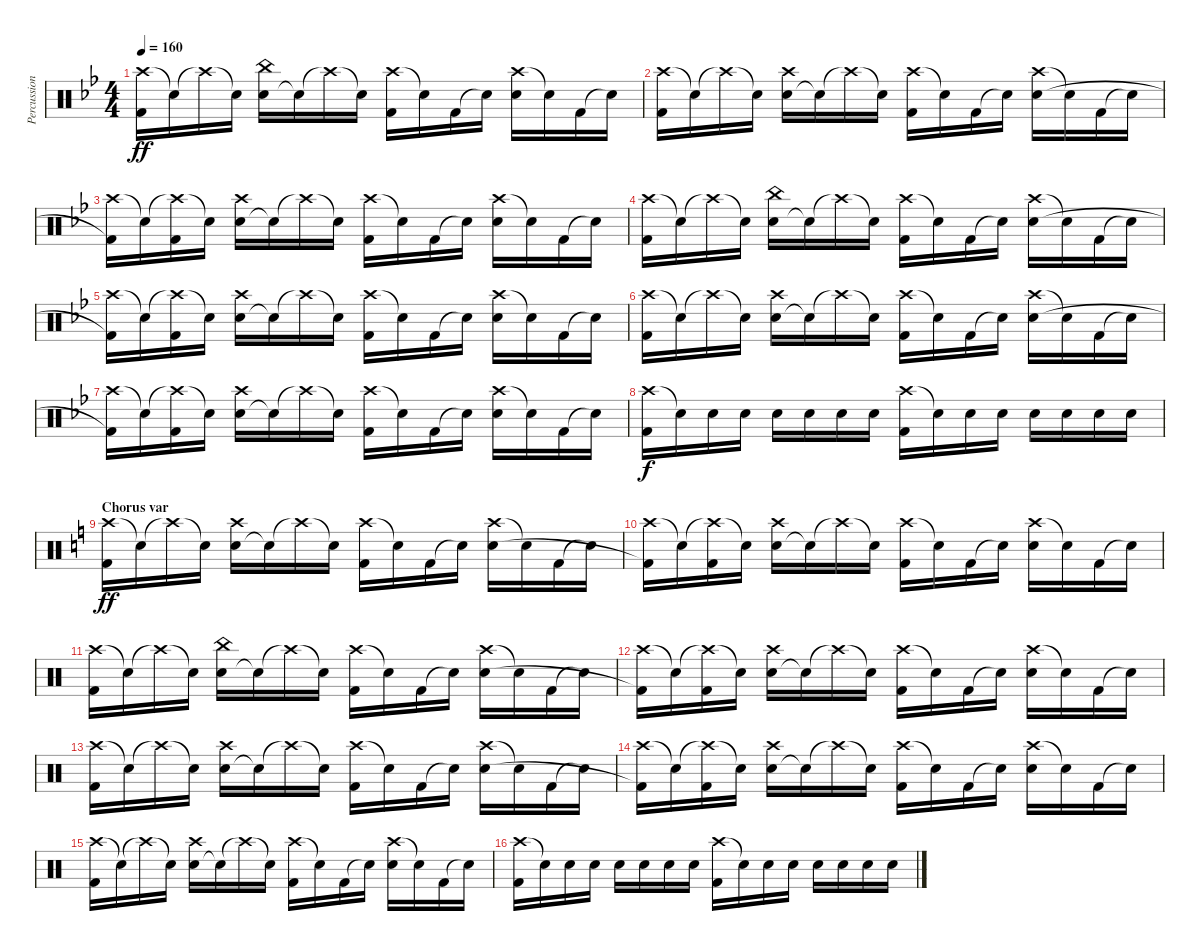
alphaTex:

\track ("Percussion" "Percussion") {instrument percussion}
\staff {score}
\articulation defaults
\ts (4 4)
\tempo 160
\clef neutral
\ks bb
("Crash high (hit)" "Kick (hit) 2").16{dy ff} "Snare (hit)"{t}.16 "Crash high (hit)"{t}.16 "Snare (hit)"{t}.16 ("Electric Snare (hit)" "China (hit)").16 "Snare (hit)"{t}.16 "Crash high (hit)"{t}.16 "Snare (hit)"{t}.16 ("Crash high (hit)" "Kick (hit) 2").16 "Snare (hit)"{t}.16 "Kick (hit) 2".16 "Snare (hit)"{t}.16 ("Crash high (hit)" "Electric Snare (hit)").16 "Snare (hit)"{t}.16 "Kick (hit) 2".16 "Snare (hit)"{t}.16 |
("Crash high (hit)" "Kick (hit) 2").16 "Snare (hit)"{t}.16 "Crash high (hit)"{t}.16 "Snare (hit)"{t}.16 ("Electric Snare (hit)" "Crash high (hit)").16 "Snare (hit)"{t}.16 "Crash high (hit)"{t}.16 "Snare (hit)"{t}.16 ("Crash high (hit)" "Kick (hit) 2").16 "Snare (hit)"{t}.16 "Kick (hit) 2".16 "Snare (hit)"{t}.16 ("Crash high (hit)" "Electric Snare (hit)").16 "Snare (hit)"{t}.16 "Kick (hit) 2".16 "Snare (hit)"{t}.16 |
("Crash high (hit)" "Kick (hit) 2"{t}).16 "Snare (hit)"{t}.16 ("Crash high (hit)"{t} "Kick (hit) 2").16 "Snare (hit)"{t}.16 ("Electric Snare (hit)" "Crash high (hit)").16 "Snare (hit)"{t}.16 "Crash high (hit)"{t}.16 "Snare (hit)"{t}.16 ("Crash high (hit)" "Kick (hit) 2").16 "Snare (hit)"{t}.16 "Kick (hit) 2".16 "Snare (hit)"{t}.16 ("Crash high (hit)" "Electric Snare (hit)").16 "Snare (hit)"{t}.16 "Kick (hit) 2".16 "Snare (hit)"{t}.16 |
("Crash high (hit)" "Kick (hit) 2").16 "Snare (hit)"{t}.16 "Crash high (hit)"{t}.16 "Snare (hit)"{t}.16 ("Electric Snare (hit)" "China (hit)").16 "Snare (hit)"{t}.16 "Crash high (hit)"{t}.16 "Snare (hit)"{t}.16 ("Crash high (hit)" "Kick (hit) 2").16 "Snare (hit)"{t}.16 "Kick (hit) 2".16 "Snare (hit)"{t}.16 ("Crash high (hit)" "Electric Snare (hit)").16 "Snare (hit)"{t}.16 "Kick (hit) 2".16 "Snare (hit)"{t}.16 |
("Crash high (hit)" "Kick (hit) 2"{t}).16 "Snare (hit)"{t}.16 ("Crash high (hit)"{t} "Kick (hit) 2").16 "Snare (hit)"{t}.16 ("Electric Snare (hit)" "Crash high (hit)").16 "Snare (hit)"{t}.16 "Crash high (hit)"{t}.16 "Snare (hit)"{t}.16 ("Crash high (hit)" "Kick (hit) 2").16 "Snare (hit)"{t}.16 "Kick (hit) 2".16 "Snare (hit)"{t}.16 ("Crash high (hit)" "Electric Snare (hit)").16 "Snare (hit)"{t}.16 "Kick (hit) 2".16 "Snare (hit)"{t}.16 |
("Crash high (hit)" "Kick (hit) 2").16 "Snare (hit)"{t}.16 "Crash high (hit)"{t}.16 "Snare (hit)"{t}.16 ("Electric Snare (hit)" "Crash high (hit)").16 "Snare (hit)"{t}.16 "Crash high (hit)"{t}.16 "Snare (hit)"{t}.16 ("Crash high (hit)" "Kick (hit) 2").16 "Snare (hit)"{t}.16 "Kick (hit) 2".16 "Snare (hit)"{t}.16 ("Crash high (hit)" "Electric Snare (hit)").16 "Snare (hit)"{t}.16 "Kick (hit) 2".16 "Snare (hit)"{t}.16 |
("Crash high (hit)" "Kick (hit) 2"{t}).16 "Snare (hit)"{t}.16 ("Crash high (hit)"{t} "Kick (hit) 2").16 "Snare (hit)"{t}.16 ("Electric Snare (hit)" "Crash high (hit)").16 "Snare (hit)"{t}.16 "Crash high (hit)"{t}.16 "Snare (hit)"{t}.16 ("Crash high (hit)" "Kick (hit) 2").16 "Snare (hit)"{t}.16 "Kick (hit) 2".16 "Snare (hit)"{t}.16 ("Crash high (hit)" "Electric Snare (hit)").16 "Snare (hit)"{t}.16 "Kick (hit) 2".16 "Snare (hit)"{t}.16 |
("Crash high (hit)" "Kick (hit) 2").16{dy f} "Snare (hit)"{t}.16 "Electric Snare (hit)".16 "Electric Snare (hit)".16 "Electric Snare (hit)".16 "Electric Snare (hit)".16 "Electric Snare (hit)".16 "Electric Snare (hit)".16 ("Crash high (hit)" "Kick (hit) 2").16 "Snare (hit)"{t}.16 "Electric Snare (hit)".16 "Electric Snare (hit)".16 "Electric Snare (hit)".16 "Electric Snare (hit)".16 "Electric Snare (hit)".16 "Electric Snare (hit)".16 |
\section ("" "Chorus var")
\ks c
("Crash high (hit)" "Kick (hit) 2").16{dy ff} "Snare (hit)"{t}.16 "Crash high (hit)"{t}.16 "Snare (hit)"{t}.16 ("Electric Snare (hit)" "Crash high (hit)").16 "Snare (hit)"{t}.16 "Crash high (hit)"{t}.16 "Snare (hit)"{t}.16 ("Crash high (hit)" "Kick (hit) 2").16 "Snare (hit)"{t}.16 "Kick (hit) 2".16 "Snare (hit)"{t}.16 ("Crash high (hit)" "Electric Snare (hit)").16 "Snare (hit)"{t}.16 "Kick (hit) 2".16 "Snare (hit)"{t}.16 |
("Crash high (hit)" "Kick (hit) 2"{t}).16 "Snare (hit)"{t}.16 ("Crash high (hit)"{t} "Kick (hit) 2").16 "Snare (hit)"{t}.16 ("Electric Snare (hit)" "Crash high (hit)").16 "Snare (hit)"{t}.16 "Crash high (hit)"{t}.16 "Snare (hit)"{t}.16 ("Crash high (hit)" "Kick (hit) 2").16 "Snare (hit)"{t}.16 "Kick (hit) 2".16 "Snare (hit)"{t}.16 ("Crash high (hit)" "Electric Snare (hit)").16 "Snare (hit)"{t}.16 "Kick (hit) 2".16 "Snare (hit)"{t}.16 |
("Crash high (hit)" "Kick (hit) 2").16 "Snare (hit)"{t}.16 "Crash high (hit)"{t}.16 "Snare (hit)"{t}.16 ("Electric Snare (hit)" "China (hit)").16 "Snare (hit)"{t}.16 "Crash high (hit)"{t}.16 "Snare (hit)"{t}.16 ("Crash high (hit)" "Kick (hit) 2").16 "Snare (hit)"{t}.16 "Kick (hit) 2".16 "Snare (hit)"{t}.16 ("Crash high (hit)" "Electric Snare (hit)").16 "Snare (hit)"{t}.16 "Kick (hit) 2".16 "Snare (hit)"{t}.16 |
("Crash high (hit)" "Kick (hit) 2"{t}).16 "Snare (hit)"{t}.16 ("Crash high (hit)"{t} "Kick (hit) 2").16 "Snare (hit)"{t}.16 ("Electric Snare (hit)" "Crash high (hit)").16 "Snare (hit)"{t}.16 "Crash high (hit)"{t}.16 "Snare (hit)"{t}.16 ("Crash high (hit)" "Kick (hit) 2").16 "Snare (hit)"{t}.16 "Kick (hit) 2".16 "Snare (hit)"{t}.16 ("Crash high (hit)" "Electric Snare (hit)").16 "Snare (hit)"{t}.16 "Kick (hit) 2".16 "Snare (hit)"{t}.16 |
("Crash high (hit)" "Kick (hit) 2").16 "Snare (hit)"{t}.16 "Crash high (hit)"{t}.16 "Snare (hit)"{t}.16 ("Electric Snare (hit)" "Crash high (hit)").16 "Snare (hit)"{t}.16 "Crash high (hit)"{t}.16 "Snare (hit)"{t}.16 ("Crash high (hit)" "Kick (hit) 2").16 "Snare (hit)"{t}.16 "Kick (hit) 2".16 "Snare (hit)"{t}.16 ("Crash high (hit)" "Electric Snare (hit)").16 "Snare (hit)"{t}.16 "Kick (hit) 2".16 "Snare (hit)"{t}.16 |
("Crash high (hit)" "Kick (hit) 2"{t}).16 "Snare (hit)"{t}.16 ("Crash high (hit)"{t} "Kick (hit) 2").16 "Snare (hit)"{t}.16 ("Electric Snare (hit)" "Crash high (hit)").16 "Snare (hit)"{t}.16 "Crash high (hit)"{t}.16 "Snare (hit)"{t}.16 ("Crash high (hit)" "Kick (hit) 2").16 "Snare (hit)"{t}.16 "Kick (hit) 2".16 "Snare (hit)"{t}.16 ("Crash high (hit)" "Electric Snare (hit)").16 "Snare (hit)"{t}.16 "Kick (hit) 2".16 "Snare (hit)"{t}.16 |
("Crash high (hit)" "Kick (hit) 2").16 "Snare (hit)"{t}.16 "Crash high (hit)"{t}.16 "Snare (hit)"{t}.16 ("Electric Snare (hit)" "Crash high (hit)").16 "Snare (hit)"{t}.16 "Crash high (hit)"{t}.16 "Snare (hit)"{t}.16 ("Crash high (hit)" "Kick (hit) 2").16 "Snare (hit)"{t}.16 "Kick (hit) 2".16 "Snare (hit)"{t}.16 ("Crash high (hit)" "Electric Snare (hit)").16 "Snare (hit)"{t}.16 "Kick (hit) 2".16 "Snare (hit)"{t}.16 |
("Crash high (hit)" "Kick (hit) 2").16 "Snare (hit)"{t}.16 "Electric Snare (hit)".16 "Electric Snare (hit)".16 "Electric Snare (hit)".16 "Electric Snare (hit)".16 "Electric Snare (hit)".16 "Electric Snare (hit)".16 ("Crash high (hit)" "Kick (hit) 2").16 "Snare (hit)"{t}.16 "Electric Snare (hit)".16 "Electric Snare (hit)".16 "Electric Snare (hit)".16 "Electric Snare (hit)".16 "Electric Snare (hit)".16 "Electric Snare (hit)".16
